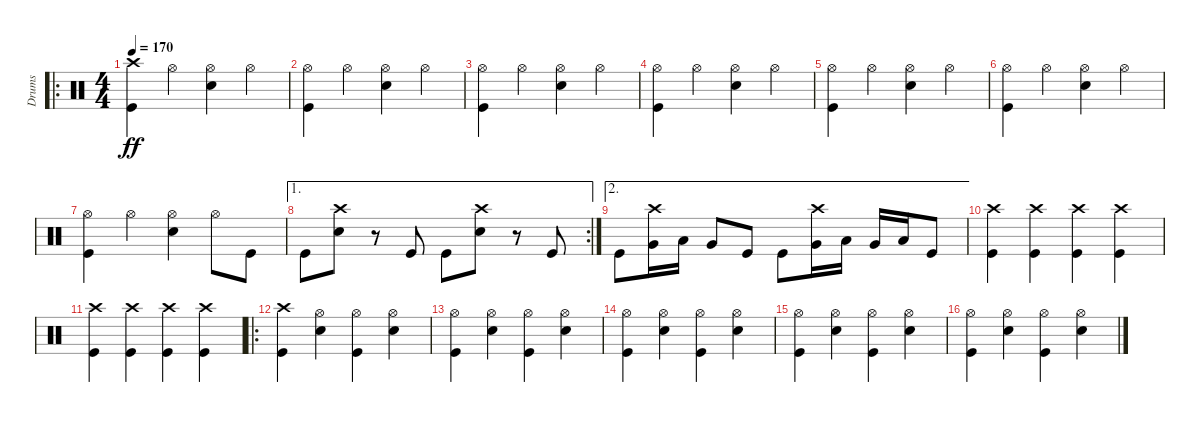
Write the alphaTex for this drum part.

\track ("Drums" "Drums") {instrument percussion}
\staff {score}
\articulation defaults
\ro
\ts (4 4)
\tempo 170
\clef neutral
\ks c
("Crash high (hit)" "Kick (hit)").4{dy ff} "Hi-Hat (open)".4 ("Hi-Hat (open)" "Snare (hit) 2").4 "Hi-Hat (open)".4 |
("Hi-Hat (open)" "Kick (hit)").4 "Hi-Hat (open)".4 ("Hi-Hat (open)" "Snare (hit) 2").4 "Hi-Hat (open)".4 |
("Hi-Hat (open)" "Kick (hit)").4 "Hi-Hat (open)".4 ("Hi-Hat (open)" "Snare (hit) 2").4 "Hi-Hat (open)".4 |
("Hi-Hat (open)" "Kick (hit)").4 "Hi-Hat (open)".4 ("Hi-Hat (open)" "Snare (hit) 2").4 "Hi-Hat (open)".4 |
("Hi-Hat (open)" "Kick (hit)").4 "Hi-Hat (open)".4 ("Hi-Hat (open)" "Snare (hit) 2").4 "Hi-Hat (open)".4 |
("Hi-Hat (open)" "Kick (hit)").4 "Hi-Hat (open)".4 ("Hi-Hat (open)" "Snare (hit) 2").4 "Hi-Hat (open)".4 |
("Hi-Hat (open)" "Kick (hit)").4 "Hi-Hat (open)".4 ("Hi-Hat (open)" "Snare (hit) 2").4 "Hi-Hat (open)".8 "Kick (hit)".8 |
\ae 1
\rc 2 "Kick (hit)".8
("Crash high (hit)" "Snare (hit) 2").8 r.8 "Kick (hit)".8 "Kick (hit)".8 ("Crash high (hit)" "Snare (hit) 2").8 r.8 "Kick (hit)".8 |
\ae 2 "Kick (hit)".8
("Crash high (hit)" "Very Low Tom (hit)").16 "Low Floor Tom (hit)".16 "Very Low Tom (hit)".8 "Kick (hit)".8 "Kick (hit)".8 ("Crash high (hit)" "Very Low Tom (hit)").16 "Low Floor Tom (hit)".16 "Very Low Tom (hit)".16 "Low Floor Tom (hit)".16 "Kick (hit)".8 |
("Crash high (hit)" "Kick (hit)").4 ("Crash high (hit)" "Kick (hit)").4 ("Crash high (hit)" "Kick (hit)").4 ("Crash high (hit)" "Kick (hit)").4 |
("Crash high (hit)" "Kick (hit)").4 ("Crash high (hit)" "Kick (hit)").4 ("Crash high (hit)" "Kick (hit)").4 ("Crash high (hit)" "Kick (hit)").4 |
\ro
("Crash high (hit)" "Kick (hit)").4 ("Hi-Hat (open)" "Snare (hit) 2").4 ("Hi-Hat (open)" "Kick (hit)").4 ("Hi-Hat (open)" "Snare (hit) 2").4 |
("Hi-Hat (open)" "Kick (hit)").4 ("Hi-Hat (open)" "Snare (hit) 2").4 ("Hi-Hat (open)" "Kick (hit)").4 ("Hi-Hat (open)" "Snare (hit) 2").4 |
("Hi-Hat (open)" "Kick (hit)").4 ("Hi-Hat (open)" "Snare (hit) 2").4 ("Hi-Hat (open)" "Kick (hit)").4 ("Hi-Hat (open)" "Snare (hit) 2").4 |
("Hi-Hat (open)" "Kick (hit)").4 ("Hi-Hat (open)" "Snare (hit) 2").4 ("Hi-Hat (open)" "Kick (hit)").4 ("Hi-Hat (open)" "Snare (hit) 2").4 |
("Hi-Hat (open)" "Kick (hit)").4 ("Hi-Hat (open)" "Snare (hit) 2").4 ("Hi-Hat (open)" "Kick (hit)").4 ("Hi-Hat (open)" "Snare (hit) 2").4
